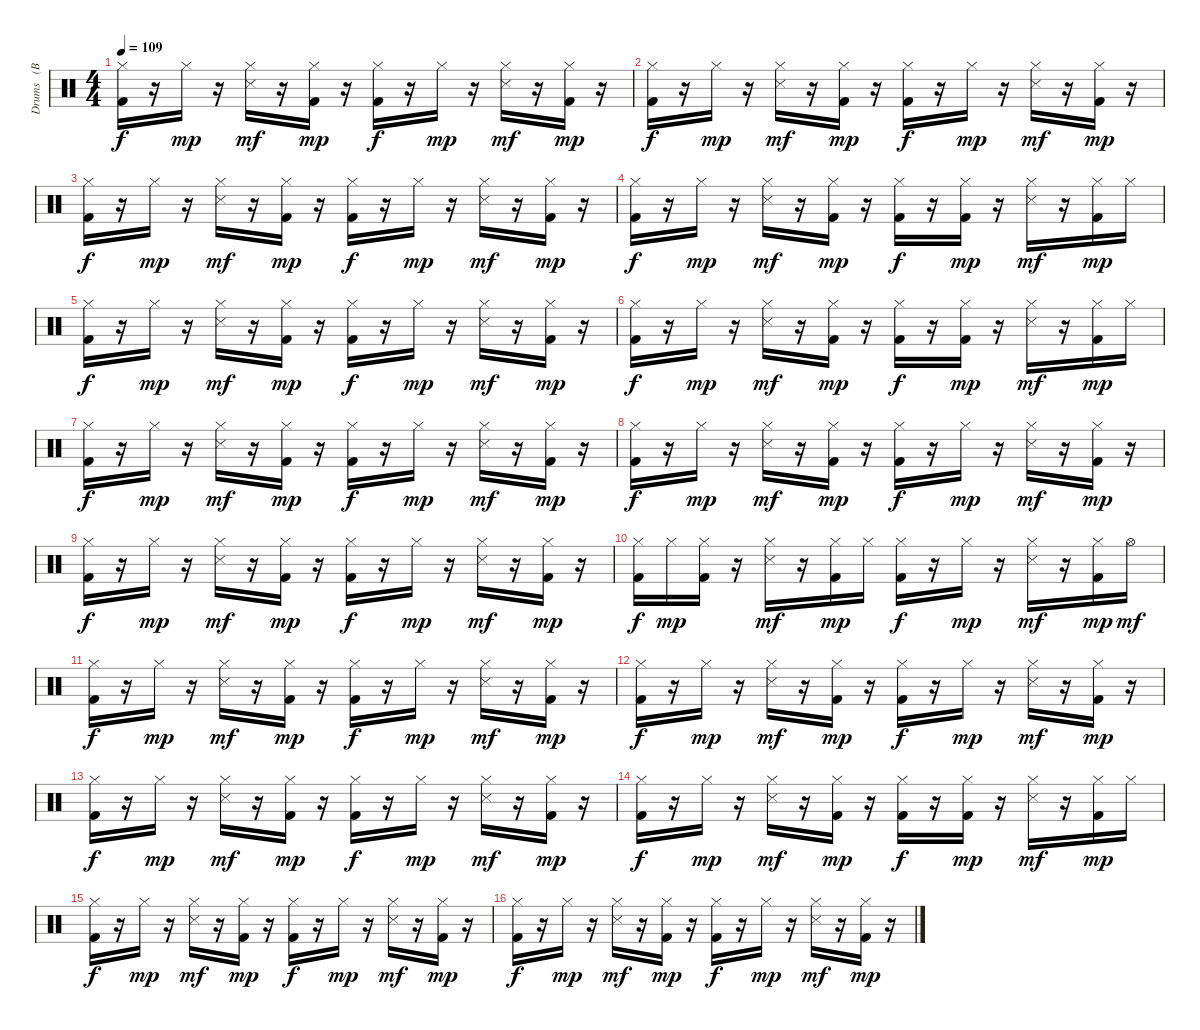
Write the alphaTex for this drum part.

\track ("Drums   (BB)" "Drums   (B") {instrument percussion}
\staff {score}
\articulation defaults
\ts (4 4)
\tempo 109
\clef neutral
\ks c
("Kick (hit) 2" "Hi-Hat (closed)").16{dy f} r.16 "Hi-Hat (closed)".16{dy mp} r.16 ("Hi-Hat (closed)" "Snare (side stick) 3").16{dy mf} r.16 ("Kick (hit) 2" "Hi-Hat (closed)").16{dy mp} r.16 ("Kick (hit) 2" "Hi-Hat (closed)").16{dy f} r.16 "Hi-Hat (closed)".16{dy mp} r.16 ("Hi-Hat (closed)" "Snare (side stick) 3").16{dy mf} r.16 ("Kick (hit) 2" "Hi-Hat (closed)").16{dy mp} r.16 |
("Kick (hit) 2" "Hi-Hat (closed)").16{dy f} r.16 "Hi-Hat (closed)".16{dy mp} r.16 ("Hi-Hat (closed)" "Snare (side stick) 3").16{dy mf} r.16 ("Kick (hit) 2" "Hi-Hat (closed)").16{dy mp} r.16 ("Kick (hit) 2" "Hi-Hat (closed)").16{dy f} r.16 "Hi-Hat (closed)".16{dy mp} r.16 ("Hi-Hat (closed)" "Snare (side stick) 3").16{dy mf} r.16 ("Kick (hit) 2" "Hi-Hat (closed)").16{dy mp} r.16 |
("Kick (hit) 2" "Hi-Hat (closed)").16{dy f} r.16 "Hi-Hat (closed)".16{dy mp} r.16 ("Hi-Hat (closed)" "Snare (side stick) 3").16{dy mf} r.16 ("Kick (hit) 2" "Hi-Hat (closed)").16{dy mp} r.16 ("Kick (hit) 2" "Hi-Hat (closed)").16{dy f} r.16 "Hi-Hat (closed)".16{dy mp} r.16 ("Hi-Hat (closed)" "Snare (side stick) 3").16{dy mf} r.16 ("Kick (hit) 2" "Hi-Hat (closed)").16{dy mp} r.16 |
("Kick (hit) 2" "Hi-Hat (closed)").16{dy f} r.16 "Hi-Hat (closed)".16{dy mp} r.16 ("Hi-Hat (closed)" "Snare (side stick) 3").16{dy mf} r.16 ("Kick (hit) 2" "Hi-Hat (closed)").16{dy mp} r.16 ("Kick (hit) 2" "Hi-Hat (closed)").16{dy f} r.16 ("Kick (hit) 2" "Hi-Hat (closed)").16{dy mp} r.16 ("Hi-Hat (closed)" "Snare (side stick) 3").16{dy mf} r.16 ("Kick (hit) 2" "Hi-Hat (closed)").16{dy mp} "Hi-Hat (closed)".16 |
("Kick (hit) 2" "Hi-Hat (closed)").16{dy f} r.16 "Hi-Hat (closed)".16{dy mp} r.16 ("Hi-Hat (closed)" "Snare (side stick) 3").16{dy mf} r.16 ("Kick (hit) 2" "Hi-Hat (closed)").16{dy mp} r.16 ("Kick (hit) 2" "Hi-Hat (closed)").16{dy f} r.16 "Hi-Hat (closed)".16{dy mp} r.16 ("Hi-Hat (closed)" "Snare (side stick) 3").16{dy mf} r.16 ("Kick (hit) 2" "Hi-Hat (closed)").16{dy mp} r.16 |
("Kick (hit) 2" "Hi-Hat (closed)").16{dy f} r.16 "Hi-Hat (closed)".16{dy mp} r.16 ("Hi-Hat (closed)" "Snare (side stick) 3").16{dy mf} r.16 ("Kick (hit) 2" "Hi-Hat (closed)").16{dy mp} r.16 ("Kick (hit) 2" "Hi-Hat (closed)").16{dy f} r.16 ("Kick (hit) 2" "Hi-Hat (closed)").16{dy mp} r.16 ("Hi-Hat (closed)" "Snare (side stick) 3").16{dy mf} r.16 ("Kick (hit) 2" "Hi-Hat (closed)").16{dy mp} "Hi-Hat (closed)".16 |
("Kick (hit) 2" "Hi-Hat (closed)").16{dy f} r.16 "Hi-Hat (closed)".16{dy mp} r.16 ("Hi-Hat (closed)" "Snare (side stick) 3").16{dy mf} r.16 ("Kick (hit) 2" "Hi-Hat (closed)").16{dy mp} r.16 ("Kick (hit) 2" "Hi-Hat (closed)").16{dy f} r.16 "Hi-Hat (closed)".16{dy mp} r.16 ("Hi-Hat (closed)" "Snare (side stick) 3").16{dy mf} r.16 ("Kick (hit) 2" "Hi-Hat (closed)").16{dy mp} r.16 |
("Kick (hit) 2" "Hi-Hat (closed)").16{dy f} r.16 "Hi-Hat (closed)".16{dy mp} r.16 ("Hi-Hat (closed)" "Snare (side stick) 3").16{dy mf} r.16 ("Kick (hit) 2" "Hi-Hat (closed)").16{dy mp} r.16 ("Kick (hit) 2" "Hi-Hat (closed)").16{dy f} r.16 "Hi-Hat (closed)".16{dy mp} r.16 ("Hi-Hat (closed)" "Snare (side stick) 3").16{dy mf} r.16 ("Kick (hit) 2" "Hi-Hat (closed)").16{dy mp} r.16 |
("Kick (hit) 2" "Hi-Hat (closed)").16{dy f} r.16 "Hi-Hat (closed)".16{dy mp} r.16 ("Hi-Hat (closed)" "Snare (side stick) 3").16{dy mf} r.16 ("Kick (hit) 2" "Hi-Hat (closed)").16{dy mp} r.16 ("Kick (hit) 2" "Hi-Hat (closed)").16{dy f} r.16 "Hi-Hat (closed)".16{dy mp} r.16 ("Hi-Hat (closed)" "Snare (side stick) 3").16{dy mf} r.16 ("Kick (hit) 2" "Hi-Hat (closed)").16{dy mp} r.16 |
("Kick (hit) 2" "Hi-Hat (closed)").16{dy f} "Hi-Hat (closed)".16{dy mp} ("Kick (hit) 2" "Hi-Hat (closed)").16 r.16 ("Hi-Hat (closed)" "Snare (side stick) 3").16{dy mf} r.16 ("Kick (hit) 2" "Hi-Hat (closed)").16{dy mp} "Hi-Hat (closed)".16 ("Kick (hit) 2" "Hi-Hat (closed)").16{dy f} r.16 "Hi-Hat (closed)".16{dy mp} r.16 ("Hi-Hat (closed)" "Snare (side stick) 3").16{dy mf} r.16 ("Kick (hit) 2" "Hi-Hat (closed)").16{dy mp} "Hi-Hat (open)".16{dy mf} |
("Kick (hit) 2" "Hi-Hat (closed)").16{dy f} r.16 "Hi-Hat (closed)".16{dy mp} r.16 ("Hi-Hat (closed)" "Snare (side stick) 3").16{dy mf} r.16 ("Kick (hit) 2" "Hi-Hat (closed)").16{dy mp} r.16 ("Kick (hit) 2" "Hi-Hat (closed)").16{dy f} r.16 "Hi-Hat (closed)".16{dy mp} r.16 ("Hi-Hat (closed)" "Snare (side stick) 3").16{dy mf} r.16 ("Kick (hit) 2" "Hi-Hat (closed)").16{dy mp} r.16 |
("Kick (hit) 2" "Hi-Hat (closed)").16{dy f} r.16 "Hi-Hat (closed)".16{dy mp} r.16 ("Hi-Hat (closed)" "Snare (side stick) 3").16{dy mf} r.16 ("Kick (hit) 2" "Hi-Hat (closed)").16{dy mp} r.16 ("Kick (hit) 2" "Hi-Hat (closed)").16{dy f} r.16 "Hi-Hat (closed)".16{dy mp} r.16 ("Hi-Hat (closed)" "Snare (side stick) 3").16{dy mf} r.16 ("Kick (hit) 2" "Hi-Hat (closed)").16{dy mp} r.16 |
("Kick (hit) 2" "Hi-Hat (closed)").16{dy f} r.16 "Hi-Hat (closed)".16{dy mp} r.16 ("Hi-Hat (closed)" "Snare (side stick) 3").16{dy mf} r.16 ("Kick (hit) 2" "Hi-Hat (closed)").16{dy mp} r.16 ("Kick (hit) 2" "Hi-Hat (closed)").16{dy f} r.16 "Hi-Hat (closed)".16{dy mp} r.16 ("Hi-Hat (closed)" "Snare (side stick) 3").16{dy mf} r.16 ("Kick (hit) 2" "Hi-Hat (closed)").16{dy mp} r.16 |
("Kick (hit) 2" "Hi-Hat (closed)").16{dy f} r.16 "Hi-Hat (closed)".16{dy mp} r.16 ("Hi-Hat (closed)" "Snare (side stick) 3").16{dy mf} r.16 ("Kick (hit) 2" "Hi-Hat (closed)").16{dy mp} r.16 ("Kick (hit) 2" "Hi-Hat (closed)").16{dy f} r.16 ("Kick (hit) 2" "Hi-Hat (closed)").16{dy mp} r.16 ("Hi-Hat (closed)" "Snare (side stick) 3").16{dy mf} r.16 ("Kick (hit) 2" "Hi-Hat (closed)").16{dy mp} "Hi-Hat (closed)".16 |
("Kick (hit) 2" "Hi-Hat (closed)").16{dy f} r.16 "Hi-Hat (closed)".16{dy mp} r.16 ("Hi-Hat (closed)" "Snare (side stick) 3").16{dy mf} r.16 ("Kick (hit) 2" "Hi-Hat (closed)").16{dy mp} r.16 ("Kick (hit) 2" "Hi-Hat (closed)").16{dy f} r.16 "Hi-Hat (closed)".16{dy mp} r.16 ("Hi-Hat (closed)" "Snare (side stick) 3").16{dy mf} r.16 ("Kick (hit) 2" "Hi-Hat (closed)").16{dy mp} r.16 |
("Kick (hit) 2" "Hi-Hat (closed)").16{dy f} r.16 "Hi-Hat (closed)".16{dy mp} r.16 ("Hi-Hat (closed)" "Snare (side stick) 3").16{dy mf} r.16 ("Kick (hit) 2" "Hi-Hat (closed)").16{dy mp} r.16 ("Kick (hit) 2" "Hi-Hat (closed)").16{dy f} r.16 "Hi-Hat (closed)".16{dy mp} r.16 ("Hi-Hat (closed)" "Snare (side stick) 3").16{dy mf} r.16 ("Kick (hit) 2" "Hi-Hat (closed)").16{dy mp} r.16
